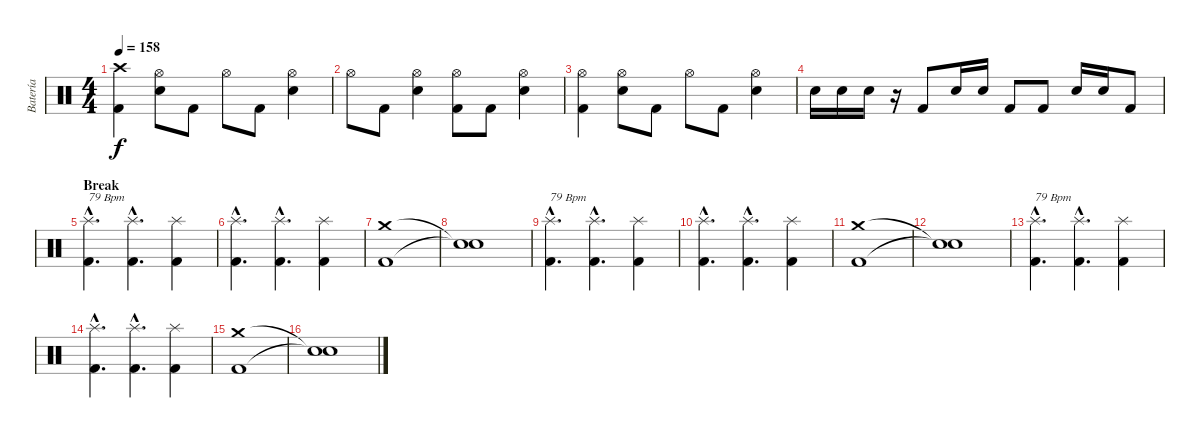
\track ("Batería" "Batería") {instrument percussion}
\staff {score}
\articulation defaults
\ts (4 4)
\tempo 158
\clef neutral
\ks c
("Crash high (hit)" "Kick (hit) 2").4{dy f} ("Hi-Hat (open)" "Electric Snare (hit)").8 "Kick (hit) 2".8 "Hi-Hat (open)".8 "Kick (hit) 2".8 ("Hi-Hat (open)" "Electric Snare (hit)").4 |
"Hi-Hat (open)".8 "Kick (hit) 2".8 ("Hi-Hat (open)" "Electric Snare (hit)").4 ("Hi-Hat (open)" "Kick (hit) 2").8 "Kick (hit) 2".8 ("Hi-Hat (open)" "Electric Snare (hit)").4 |
("Hi-Hat (open)" "Kick (hit) 2").4 ("Hi-Hat (open)" "Electric Snare (hit)").8 "Kick (hit) 2".8 "Hi-Hat (open)".8 "Kick (hit) 2".8 ("Hi-Hat (open)" "Electric Snare (hit)").4 |
"Electric Snare (hit)".16 "Electric Snare (hit)".16 "Electric Snare (hit)".16 r.16 "Kick (hit) 2".8 "Electric Snare (hit)".16 "Electric Snare (hit)".16 "Kick (hit) 2".8 "Kick (hit) 2".8 "Electric Snare (hit)".16 "Electric Snare (hit)".16 "Kick (hit) 2".8 |
\section ("" "Break")
("Splash (hit)"{hac} "Kick (hit) 2"{hac}).4{d txt "79 Bpm"} ("Splash (hit)"{hac} "Kick (hit) 2"{hac}).4{d} ("Splash (hit)" "Kick (hit) 2").4 |
("Splash (hit)"{hac} "Kick (hit) 2"{hac}).4{d} ("Splash (hit)"{hac} "Kick (hit) 2"{hac}).4{d} ("Splash (hit)" "Kick (hit) 2").4 |
("Crash medium (hit)" "Kick (hit) 2").1 |
("Snare (hit)"{t} "Snare (hit)"{t}).1 |
("Splash (hit)"{hac} "Kick (hit) 2"{hac}).4{d txt "79 Bpm"} ("Splash (hit)"{hac} "Kick (hit) 2"{hac}).4{d} ("Splash (hit)" "Kick (hit) 2").4 |
("Splash (hit)"{hac} "Kick (hit) 2"{hac}).4{d} ("Splash (hit)"{hac} "Kick (hit) 2"{hac}).4{d} ("Splash (hit)" "Kick (hit) 2").4 |
("Crash medium (hit)" "Kick (hit) 2").1 |
("Snare (hit)"{t} "Snare (hit)"{t}).1 |
("Splash (hit)"{hac} "Kick (hit) 2"{hac}).4{d txt "79 Bpm"} ("Splash (hit)"{hac} "Kick (hit) 2"{hac}).4{d} ("Splash (hit)" "Kick (hit) 2").4 |
("Splash (hit)"{hac} "Kick (hit) 2"{hac}).4{d} ("Splash (hit)"{hac} "Kick (hit) 2"{hac}).4{d} ("Splash (hit)" "Kick (hit) 2").4 |
("Crash medium (hit)" "Kick (hit) 2").1 |
("Snare (hit)"{t} "Snare (hit)"{t}).1
